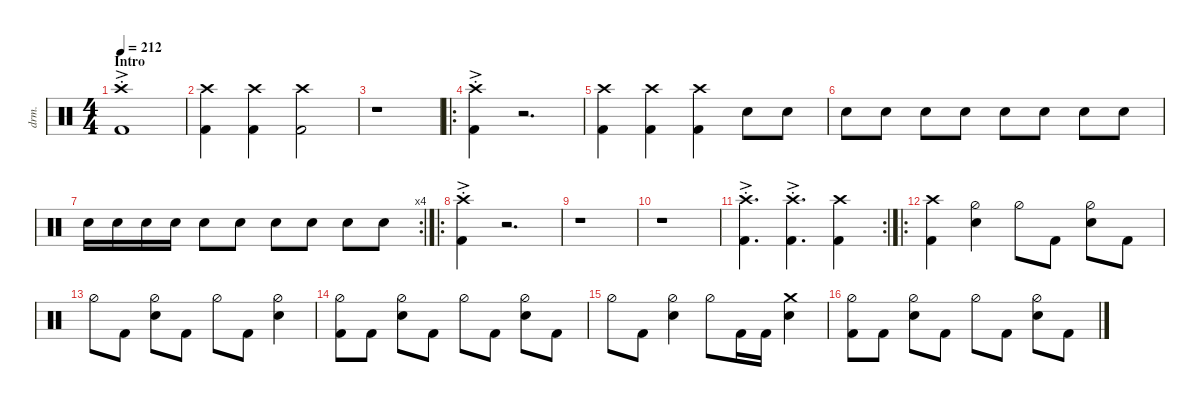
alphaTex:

\defaultSystemsLayout 4
\hideDynamics
\bracketExtendMode nobrackets
\track ("Drums" "drm.") {instrument percussion}
\staff {score}
\articulation defaults
\ts (4 4)
\beaming (8 2 2 2 2)
\section ("" "Intro")
\tempo 212
\clef neutral
\ks c
("Kick (hit) 2" "Crash high (hit)"{ac st}).1{dy f} |
("Crash high (hit)" "Kick (hit) 2").4 ("Crash high (hit)" "Kick (hit) 2").4 ("Crash high (hit)" "Kick (hit) 2").2{dy ff} |
r.1 |
\ro
("Crash high (hit)"{ac st} "Kick (hit) 2").4{dy f} r.2{d} |
("Crash high (hit)" "Kick (hit) 2").4 ("Crash high (hit)" "Kick (hit) 2").4 ("Crash high (hit)" "Kick (hit) 2").4 "Snare (hit) 2".8{dy p} "Snare (hit) 2".8 |
"Snare (hit) 2".8 "Snare (hit) 2".8 "Snare (hit) 2".8{dy mp} "Snare (hit) 2".8 "Snare (hit) 2".8 "Snare (hit) 2".8 "Snare (hit) 2".8 "Snare (hit) 2".8 |
\rc 4 "Snare (hit) 2".16{dy mf} "Snare (hit) 2".16{dy mp} "Snare (hit) 2".16 "Snare (hit) 2".16 "Snare (hit) 2".8{dy mf} "Snare (hit) 2".8 "Snare (hit) 2".8 "Snare (hit) 2".8 "Snare (hit) 2".8{dy f} "Snare (hit) 2".8
|
\ro
("Crash high (hit)"{ac st} "Kick (hit) 2").4 r.2{d} |
r.1 |
r.1 |
\rc 2
("Crash high (hit)"{ac st} "Kick (hit) 2").4{d} ("Crash high (hit)"{ac st} "Kick (hit) 2").4{d} ("Crash high (hit)" "Kick (hit) 2").4 |
\ro
("Crash high (hit)" "Kick (hit) 2").4 ("Hi-Hat (half)" "Snare (hit) 2").4 "Hi-Hat (half)".8 "Kick (hit) 2".8 ("Hi-Hat (half)" "Snare (hit) 2").8 "Kick (hit) 2".8 |
"Hi-Hat (half)".8 "Kick (hit) 2".8 ("Hi-Hat (half)" "Snare (hit) 2").8 "Kick (hit) 2".8 "Hi-Hat (half)".8 "Kick (hit) 2".8 ("Hi-Hat (half)" "Snare (hit) 2").4 |
("Hi-Hat (half)" "Kick (hit) 2").8 "Kick (hit) 2".8 ("Hi-Hat (half)" "Snare (hit) 2").8 "Kick (hit) 2".8 "Hi-Hat (half)".8 "Kick (hit) 2".8 ("Hi-Hat (half)" "Snare (hit) 2").8 "Kick (hit) 2".8 |
"Hi-Hat (half)".8 "Kick (hit) 2".8 ("Hi-Hat (half)" "Snare (hit) 2").4 "Hi-Hat (half)".8 "Kick (hit) 2".16 "Kick (hit) 2".16 ("Snare (hit) 2" "Crash medium (hit)").4 |
("Hi-Hat (half)" "Kick (hit) 2").8 "Kick (hit) 2".8 ("Hi-Hat (half)" "Snare (hit) 2").8 "Kick (hit) 2".8 "Hi-Hat (half)".8 "Kick (hit) 2".8 ("Hi-Hat (half)" "Snare (hit) 2").8 "Kick (hit) 2".8
